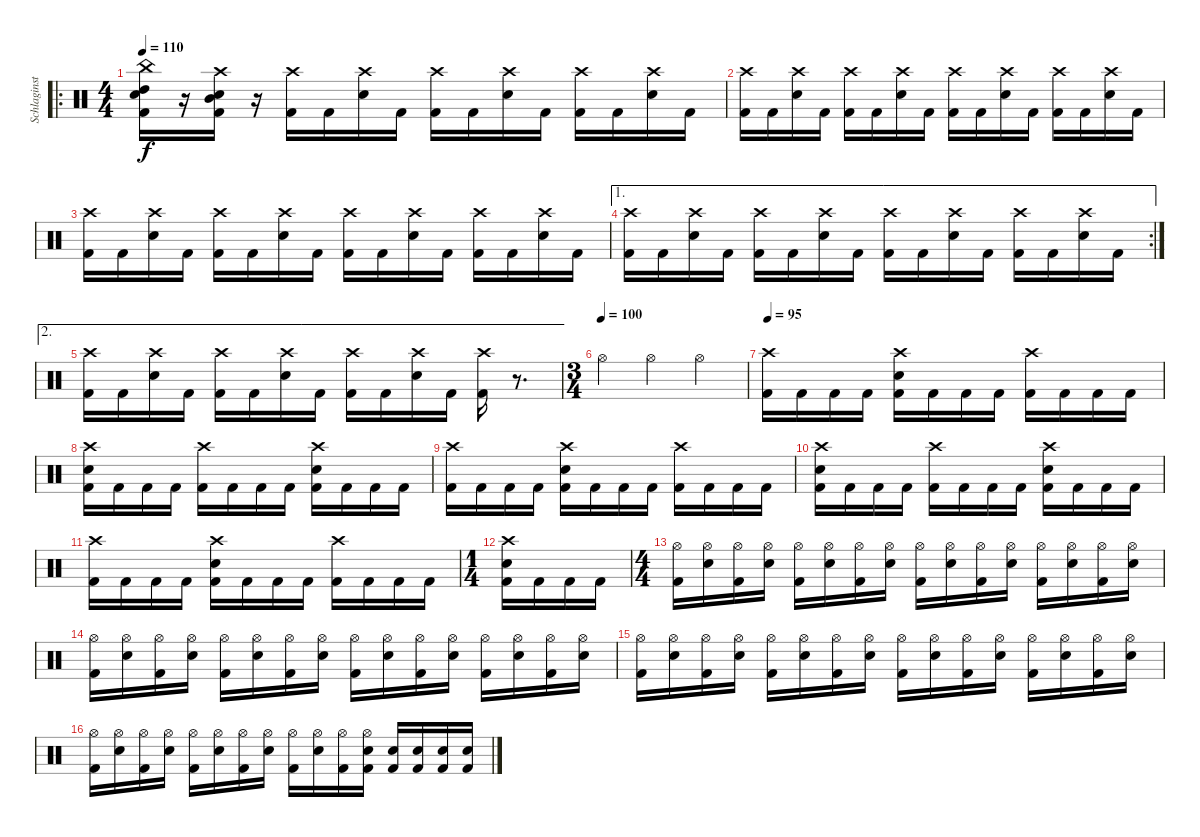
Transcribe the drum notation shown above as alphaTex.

\track ("Schlaginstrumente - Auswahl" "Schlaginst") {instrument percussion}
\staff {score}
\articulation defaults
\ro
\ts (4 4)
\tempo 110
\clef neutral
\ks c
("China (hit)" "High Tom (hit)" "Electric Snare (hit)" "Kick (hit) 2").16{dy f} r.16 ("Crash high (hit)" "Mid Tom (hit)" "Electric Snare (hit)" "Kick (hit) 2").16 r.16 ("Crash high (hit)" "Kick (hit) 2").16 "Kick (hit) 2".16 ("Crash high (hit)" "Electric Snare (hit)").16 "Kick (hit) 2".16 ("Crash high (hit)" "Kick (hit) 2").16 "Kick (hit) 2".16 ("Crash high (hit)" "Electric Snare (hit)").16 "Kick (hit) 2".16 ("Crash high (hit)" "Kick (hit) 2").16 "Kick (hit) 2".16 ("Crash high (hit)" "Electric Snare (hit)").16 "Kick (hit) 2".16 |
("Crash high (hit)" "Kick (hit) 2").16 "Kick (hit) 2".16 ("Crash high (hit)" "Electric Snare (hit)").16 "Kick (hit) 2".16 ("Crash high (hit)" "Kick (hit) 2").16 "Kick (hit) 2".16 ("Crash high (hit)" "Electric Snare (hit)").16 "Kick (hit) 2".16 ("Crash high (hit)" "Kick (hit) 2").16 "Kick (hit) 2".16 ("Crash high (hit)" "Electric Snare (hit)").16 "Kick (hit) 2".16 ("Crash high (hit)" "Kick (hit) 2").16 "Kick (hit) 2".16 ("Crash high (hit)" "Electric Snare (hit)").16 "Kick (hit) 2".16 |
("Crash high (hit)" "Kick (hit) 2").16 "Kick (hit) 2".16 ("Crash high (hit)" "Electric Snare (hit)").16 "Kick (hit) 2".16 ("Crash high (hit)" "Kick (hit) 2").16 "Kick (hit) 2".16 ("Crash high (hit)" "Electric Snare (hit)").16 "Kick (hit) 2".16 ("Crash high (hit)" "Kick (hit) 2").16 "Kick (hit) 2".16 ("Crash high (hit)" "Electric Snare (hit)").16 "Kick (hit) 2".16 ("Crash high (hit)" "Kick (hit) 2").16 "Kick (hit) 2".16 ("Crash high (hit)" "Electric Snare (hit)").16 "Kick (hit) 2".16 |
\ae 1
\rc 2
("Crash high (hit)" "Kick (hit) 2").16 "Kick (hit) 2".16 ("Crash high (hit)" "Electric Snare (hit)").16 "Kick (hit) 2".16 ("Crash high (hit)" "Kick (hit) 2").16 "Kick (hit) 2".16 ("Crash high (hit)" "Electric Snare (hit)").16 "Kick (hit) 2".16 ("Crash high (hit)" "Kick (hit) 2").16 "Kick (hit) 2".16 ("Crash high (hit)" "Electric Snare (hit)").16 "Kick (hit) 2".16 ("Crash high (hit)" "Kick (hit) 2").16 "Kick (hit) 2".16 ("Crash high (hit)" "Electric Snare (hit)").16 "Kick (hit) 2".16 |
\ae 2
("Crash high (hit)" "Kick (hit) 2").16 "Kick (hit) 2".16 ("Crash high (hit)" "Electric Snare (hit)").16 "Kick (hit) 2".16 ("Crash high (hit)" "Kick (hit) 2").16 "Kick (hit) 2".16 ("Crash high (hit)" "Electric Snare (hit)").16 "Kick (hit) 2".16 ("Crash high (hit)" "Kick (hit) 2").16 "Kick (hit) 2".16 ("Crash high (hit)" "Electric Snare (hit)").16 "Kick (hit) 2".16 ("Crash high (hit)" "Kick (hit) 2").16 r.8{d} |
\ts (3 4)
\tempo (100)
"Hi-Hat (open)".4 "Hi-Hat (open)".4 "Hi-Hat (open)".4 |
\tempo 95
("Crash high (hit)" "Kick (hit) 2").16 "Kick (hit) 2".16 "Kick (hit) 2".16 "Kick (hit) 2".16 ("Crash high (hit)" "Electric Snare (hit)" "Kick (hit) 2").16 "Kick (hit) 2".16 "Kick (hit) 2".16 "Kick (hit) 2".16 ("Crash high (hit)" "Kick (hit) 2").16 "Kick (hit) 2".16 "Kick (hit) 2".16 "Kick (hit) 2".16 |
("Crash high (hit)" "Electric Snare (hit)" "Kick (hit) 2").16 "Kick (hit) 2".16 "Kick (hit) 2".16 "Kick (hit) 2".16 ("Crash high (hit)" "Kick (hit) 2").16 "Kick (hit) 2".16 "Kick (hit) 2".16 "Kick (hit) 2".16 ("Crash high (hit)" "Electric Snare (hit)" "Kick (hit) 2").16 "Kick (hit) 2".16 "Kick (hit) 2".16 "Kick (hit) 2".16 |
("Crash high (hit)" "Kick (hit) 2").16 "Kick (hit) 2".16 "Kick (hit) 2".16 "Kick (hit) 2".16 ("Crash high (hit)" "Electric Snare (hit)" "Kick (hit) 2").16 "Kick (hit) 2".16 "Kick (hit) 2".16 "Kick (hit) 2".16 ("Crash high (hit)" "Kick (hit) 2").16 "Kick (hit) 2".16 "Kick (hit) 2".16 "Kick (hit) 2".16 |
("Crash high (hit)" "Electric Snare (hit)" "Kick (hit) 2").16 "Kick (hit) 2".16 "Kick (hit) 2".16 "Kick (hit) 2".16 ("Crash high (hit)" "Kick (hit) 2").16 "Kick (hit) 2".16 "Kick (hit) 2".16 "Kick (hit) 2".16 ("Crash high (hit)" "Electric Snare (hit)" "Kick (hit) 2").16 "Kick (hit) 2".16 "Kick (hit) 2".16 "Kick (hit) 2".16 |
("Crash high (hit)" "Kick (hit) 2").16 "Kick (hit) 2".16 "Kick (hit) 2".16 "Kick (hit) 2".16 ("Crash high (hit)" "Electric Snare (hit)" "Kick (hit) 2").16 "Kick (hit) 2".16 "Kick (hit) 2".16 "Kick (hit) 2".16 ("Crash high (hit)" "Kick (hit) 2").16 "Kick (hit) 2".16 "Kick (hit) 2".16 "Kick (hit) 2".16 |
\ts (1 4)
("Crash high (hit)" "Electric Snare (hit)" "Kick (hit) 2").16 "Kick (hit) 2".16 "Kick (hit) 2".16 "Kick (hit) 2".16 |
\ts (4 4)
("Hi-Hat (open)" "Kick (hit) 2").16 ("Hi-Hat (open)" "Electric Snare (hit)").16 ("Hi-Hat (open)" "Kick (hit) 2").16 ("Hi-Hat (open)" "Electric Snare (hit)").16 ("Hi-Hat (open)" "Kick (hit) 2").16 ("Hi-Hat (open)" "Electric Snare (hit)").16 ("Hi-Hat (open)" "Kick (hit) 2").16 ("Hi-Hat (open)" "Electric Snare (hit)").16 ("Hi-Hat (open)" "Kick (hit) 2").16 ("Hi-Hat (open)" "Electric Snare (hit)").16 ("Hi-Hat (open)" "Kick (hit) 2").16 ("Hi-Hat (open)" "Electric Snare (hit)").16 ("Hi-Hat (open)" "Kick (hit) 2").16 ("Hi-Hat (open)" "Electric Snare (hit)").16 ("Hi-Hat (open)" "Kick (hit) 2").16 ("Hi-Hat (open)" "Electric Snare (hit)").16 |
("Hi-Hat (open)" "Kick (hit) 2").16 ("Hi-Hat (open)" "Electric Snare (hit)").16 ("Hi-Hat (open)" "Kick (hit) 2").16 ("Hi-Hat (open)" "Electric Snare (hit)").16 ("Hi-Hat (open)" "Kick (hit) 2").16 ("Hi-Hat (open)" "Electric Snare (hit)").16 ("Hi-Hat (open)" "Kick (hit) 2").16 ("Hi-Hat (open)" "Electric Snare (hit)").16 ("Hi-Hat (open)" "Kick (hit) 2").16 ("Hi-Hat (open)" "Electric Snare (hit)").16 ("Hi-Hat (open)" "Kick (hit) 2").16 ("Hi-Hat (open)" "Electric Snare (hit)").16 ("Hi-Hat (open)" "Kick (hit) 2").16 ("Hi-Hat (open)" "Electric Snare (hit)").16 ("Hi-Hat (open)" "Kick (hit) 2").16 ("Hi-Hat (open)" "Electric Snare (hit)").16 |
("Hi-Hat (open)" "Kick (hit) 2").16 ("Hi-Hat (open)" "Electric Snare (hit)").16 ("Hi-Hat (open)" "Kick (hit) 2").16 ("Hi-Hat (open)" "Electric Snare (hit)").16 ("Hi-Hat (open)" "Kick (hit) 2").16 ("Hi-Hat (open)" "Electric Snare (hit)").16 ("Hi-Hat (open)" "Kick (hit) 2").16 ("Hi-Hat (open)" "Electric Snare (hit)").16 ("Hi-Hat (open)" "Kick (hit) 2").16 ("Hi-Hat (open)" "Electric Snare (hit)").16 ("Hi-Hat (open)" "Kick (hit) 2").16 ("Hi-Hat (open)" "Electric Snare (hit)").16 ("Hi-Hat (open)" "Kick (hit) 2").16 ("Hi-Hat (open)" "Electric Snare (hit)").16 ("Hi-Hat (open)" "Kick (hit) 2").16 ("Hi-Hat (open)" "Electric Snare (hit)").16 |
("Hi-Hat (open)" "Kick (hit) 2").16 ("Hi-Hat (open)" "Electric Snare (hit)").16 ("Hi-Hat (open)" "Kick (hit) 2").16 ("Hi-Hat (open)" "Electric Snare (hit)").16 ("Hi-Hat (open)" "Kick (hit) 2").16 ("Hi-Hat (open)" "Electric Snare (hit)").16 ("Hi-Hat (open)" "Kick (hit) 2").16 ("Hi-Hat (open)" "Electric Snare (hit)").16 ("Hi-Hat (open)" "Kick (hit) 2").16 ("Hi-Hat (open)" "Electric Snare (hit)").16 ("Hi-Hat (open)" "Kick (hit) 2").16 ("Hi-Hat (open)" "Electric Snare (hit)" "Kick (hit) 2").16 ("Electric Snare (hit)" "Kick (hit) 2").16 ("Electric Snare (hit)" "Kick (hit) 2").16 ("Electric Snare (hit)" "Kick (hit) 2").16 ("Electric Snare (hit)" "Kick (hit) 2").16
